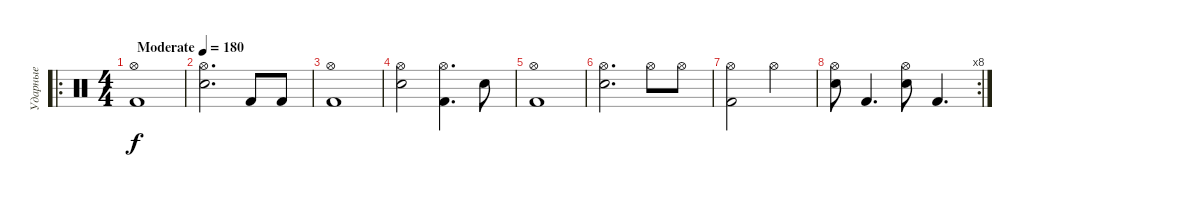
\track ("Ударные" "Ударные") {instrument percussion}
\staff {score}
\articulation defaults
\ro
\ts (4 4)
\tempo (180 "Moderate")
\clef neutral
\ks c
("Hi-Hat (open)" "Kick (hit) 2").1{dy f} |
("Hi-Hat (open)" "Electric Snare (hit)").2{d} "Kick (hit) 2".8 "Kick (hit) 2".8 |
("Hi-Hat (open)" "Kick (hit) 2").1 |
("Hi-Hat (open)" "Electric Snare (hit)").2 ("Hi-Hat (open)" "Kick (hit) 2").4{d} "Electric Snare (hit)".8 |
("Hi-Hat (open)" "Kick (hit) 2").1 |
("Hi-Hat (open)" "Electric Snare (hit)").2{d} "Hi-Hat (open)".8 "Hi-Hat (open)".8 |
("Hi-Hat (open)" "Kick (hit) 2").2 "Hi-Hat (open)".2 |
\rc 8
("Hi-Hat (open)" "Electric Snare (hit)").8 "Kick (hit) 2".4{d} ("Hi-Hat (open)" "Electric Snare (hit)").8 "Kick (hit) 2".4{d}
